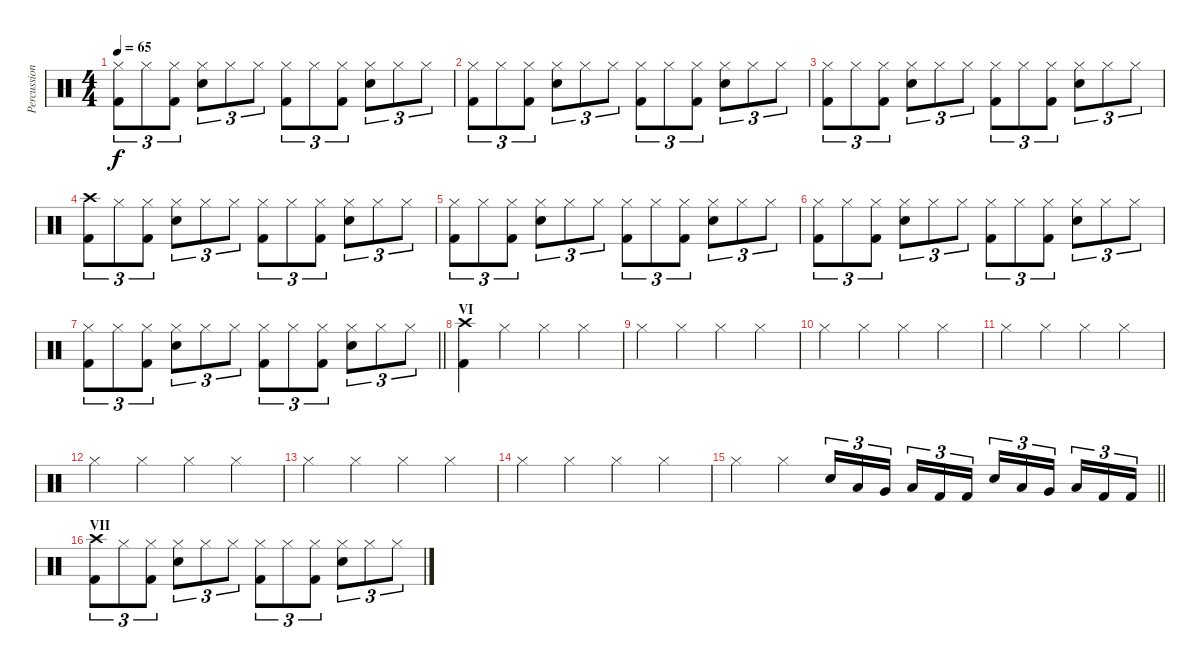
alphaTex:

\track ("Percussion" "Percussion") {instrument percussion}
\staff {score}
\articulation defaults
\ts (4 4)
\tempo 65
\clef neutral
\ks c
("Hi-Hat (closed)" "Kick (hit) 2").8{tu (3 2) dy f} "Hi-Hat (closed)".8{tu (3 2)} ("Hi-Hat (closed)" "Kick (hit) 2").8{tu (3 2)} ("Hi-Hat (closed)" "Snare (hit) 2").8{tu (3 2)} "Hi-Hat (closed)".8{tu (3 2)} "Hi-Hat (closed)".8{tu (3 2)} ("Hi-Hat (closed)" "Kick (hit) 2").8{tu (3 2)} "Hi-Hat (closed)".8{tu (3 2)} ("Hi-Hat (closed)" "Kick (hit) 2").8{tu (3 2)} ("Hi-Hat (closed)" "Snare (hit) 2").8{tu (3 2)} "Hi-Hat (closed)".8{tu (3 2)} "Hi-Hat (closed)".8{tu (3 2)} |
("Hi-Hat (closed)" "Kick (hit) 2").8{tu (3 2)} "Hi-Hat (closed)".8{tu (3 2)} ("Hi-Hat (closed)" "Kick (hit) 2").8{tu (3 2)} ("Hi-Hat (closed)" "Snare (hit) 2").8{tu (3 2)} "Hi-Hat (closed)".8{tu (3 2)} "Hi-Hat (closed)".8{tu (3 2)} ("Hi-Hat (closed)" "Kick (hit) 2").8{tu (3 2)} "Hi-Hat (closed)".8{tu (3 2)} ("Hi-Hat (closed)" "Kick (hit) 2").8{tu (3 2)} ("Hi-Hat (closed)" "Snare (hit) 2").8{tu (3 2)} "Hi-Hat (closed)".8{tu (3 2)} "Hi-Hat (closed)".8{tu (3 2)} |
("Hi-Hat (closed)" "Kick (hit) 2").8{tu (3 2)} "Hi-Hat (closed)".8{tu (3 2)} ("Hi-Hat (closed)" "Kick (hit) 2").8{tu (3 2)} ("Hi-Hat (closed)" "Snare (hit) 2").8{tu (3 2)} "Hi-Hat (closed)".8{tu (3 2)} "Hi-Hat (closed)".8{tu (3 2)} ("Hi-Hat (closed)" "Kick (hit) 2").8{tu (3 2)} "Hi-Hat (closed)".8{tu (3 2)} ("Hi-Hat (closed)" "Kick (hit) 2").8{tu (3 2)} ("Hi-Hat (closed)" "Snare (hit) 2").8{tu (3 2)} "Hi-Hat (closed)".8{tu (3 2)} "Hi-Hat (closed)".8{tu (3 2)} |
("Crash high (hit)" "Kick (hit) 2").8{tu (3 2)} "Hi-Hat (closed)".8{tu (3 2)} ("Hi-Hat (closed)" "Kick (hit) 2").8{tu (3 2)} ("Hi-Hat (closed)" "Snare (hit) 2").8{tu (3 2)} "Hi-Hat (closed)".8{tu (3 2)} "Hi-Hat (closed)".8{tu (3 2)} ("Hi-Hat (closed)" "Kick (hit) 2").8{tu (3 2)} "Hi-Hat (closed)".8{tu (3 2)} ("Hi-Hat (closed)" "Kick (hit) 2").8{tu (3 2)} ("Hi-Hat (closed)" "Snare (hit) 2").8{tu (3 2)} "Hi-Hat (closed)".8{tu (3 2)} "Hi-Hat (closed)".8{tu (3 2)} |
("Hi-Hat (closed)" "Kick (hit) 2").8{tu (3 2)} "Hi-Hat (closed)".8{tu (3 2)} ("Hi-Hat (closed)" "Kick (hit) 2").8{tu (3 2)} ("Hi-Hat (closed)" "Snare (hit) 2").8{tu (3 2)} "Hi-Hat (closed)".8{tu (3 2)} "Hi-Hat (closed)".8{tu (3 2)} ("Hi-Hat (closed)" "Kick (hit) 2").8{tu (3 2)} "Hi-Hat (closed)".8{tu (3 2)} ("Hi-Hat (closed)" "Kick (hit) 2").8{tu (3 2)} ("Hi-Hat (closed)" "Snare (hit) 2").8{tu (3 2)} "Hi-Hat (closed)".8{tu (3 2)} "Hi-Hat (closed)".8{tu (3 2)} |
("Hi-Hat (closed)" "Kick (hit) 2").8{tu (3 2)} "Hi-Hat (closed)".8{tu (3 2)} ("Hi-Hat (closed)" "Kick (hit) 2").8{tu (3 2)} ("Hi-Hat (closed)" "Snare (hit) 2").8{tu (3 2)} "Hi-Hat (closed)".8{tu (3 2)} "Hi-Hat (closed)".8{tu (3 2)} ("Hi-Hat (closed)" "Kick (hit) 2").8{tu (3 2)} "Hi-Hat (closed)".8{tu (3 2)} ("Hi-Hat (closed)" "Kick (hit) 2").8{tu (3 2)} ("Hi-Hat (closed)" "Snare (hit) 2").8{tu (3 2)} "Hi-Hat (closed)".8{tu (3 2)} "Hi-Hat (closed)".8{tu (3 2)} |
\barLineRight lightlight
("Hi-Hat (closed)" "Kick (hit) 2").8{tu (3 2)} "Hi-Hat (closed)".8{tu (3 2)} ("Hi-Hat (closed)" "Kick (hit) 2").8{tu (3 2)} ("Hi-Hat (closed)" "Snare (hit) 2").8{tu (3 2)} "Hi-Hat (closed)".8{tu (3 2)} "Hi-Hat (closed)".8{tu (3 2)} ("Hi-Hat (closed)" "Kick (hit) 2").8{tu (3 2)} "Hi-Hat (closed)".8{tu (3 2)} ("Hi-Hat (closed)" "Kick (hit) 2").8{tu (3 2)} ("Hi-Hat (closed)" "Snare (hit) 2").8{tu (3 2)} "Hi-Hat (closed)".8{tu (3 2)} "Hi-Hat (closed)".8{tu (3 2)} |
\section ("" "VI")
("Crash high (hit)" "Kick (hit) 2").4 "Hi-Hat (closed)".4 "Hi-Hat (closed)".4 "Hi-Hat (closed)".4 |
"Hi-Hat (closed)".4 "Hi-Hat (closed)".4 "Hi-Hat (closed)".4 "Hi-Hat (closed)".4 |
"Hi-Hat (closed)".4 "Hi-Hat (closed)".4 "Hi-Hat (closed)".4 "Hi-Hat (closed)".4 |
"Hi-Hat (closed)".4 "Hi-Hat (closed)".4 "Hi-Hat (closed)".4 "Hi-Hat (closed)".4 |
"Hi-Hat (closed)".4 "Hi-Hat (closed)".4 "Hi-Hat (closed)".4 "Hi-Hat (closed)".4 |
"Hi-Hat (closed)".4 "Hi-Hat (closed)".4 "Hi-Hat (closed)".4 "Hi-Hat (closed)".4 |
"Hi-Hat (closed)".4 "Hi-Hat (closed)".4 "Hi-Hat (closed)".4 "Hi-Hat (closed)".4 |
\barLineRight lightlight "Hi-Hat (closed)".4 "Hi-Hat (closed)".4 "Snare (hit) 2".16{tu (3 2)} "Low Tom (hit)".16{tu (3 2)} "Very Low Tom (hit)".16{tu (3 2) beam splitsecondary} "Low Floor Tom (hit)".16{tu (3 2)} "Kick (hit) 2".16{tu (3 2)} "Kick (hit) 2".16{tu (3 2)} "Snare (hit) 2".16{tu (3 2)} "Low Tom (hit)".16{tu (3 2)} "Very Low Tom (hit)".16{tu (3 2) beam splitsecondary} "Low Floor Tom (hit)".16{tu (3 2)} "Kick (hit) 2".16{tu (3 2)} "Kick (hit) 2".16{tu (3 2)}
|
\section ("" "VII")
("Crash high (hit)" "Kick (hit) 2").8{tu (3 2)} "Hi-Hat (closed)".8{tu (3 2)} ("Hi-Hat (closed)" "Kick (hit) 2").8{tu (3 2)} ("Hi-Hat (closed)" "Snare (hit) 2").8{tu (3 2)} "Hi-Hat (closed)".8{tu (3 2)} "Hi-Hat (closed)".8{tu (3 2)} ("Hi-Hat (closed)" "Kick (hit) 2").8{tu (3 2)} "Hi-Hat (closed)".8{tu (3 2)} ("Hi-Hat (closed)" "Kick (hit) 2").8{tu (3 2)} ("Hi-Hat (closed)" "Snare (hit) 2").8{tu (3 2)} "Hi-Hat (closed)".8{tu (3 2)} "Hi-Hat (closed)".8{tu (3 2)}
